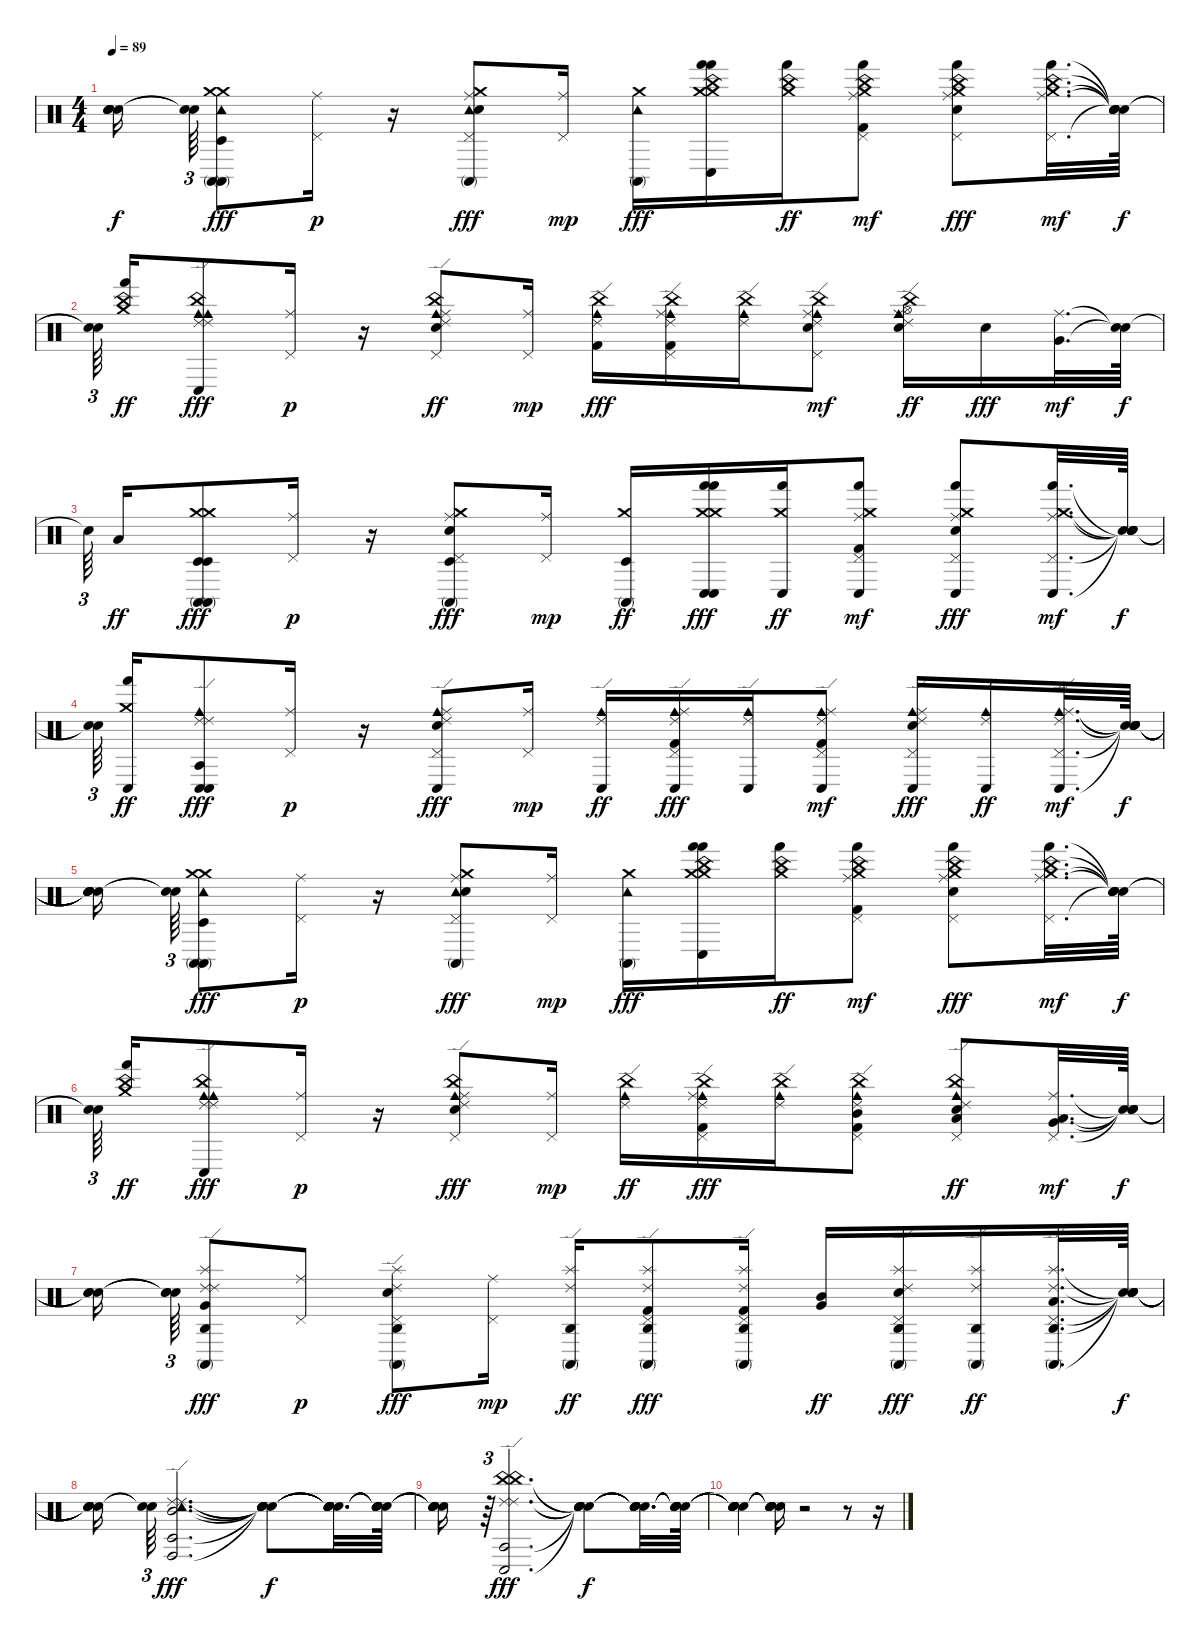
\track "" {instrument percussion}
\staff {score}
\articulation defaults
\ts (4 4)
\tempo 89
\clef neutral
\ks c
("Snare (hit)"{t} "Snare (hit)"{t} "Snare (hit)"{t} "Snare (hit)"{t} "Snare (hit)"{t}).16{dy f beam splitsecondary} ("Snare (hit)"{t} "Snare (hit)"{t}).64{tu (3 2)} ("Crash medium (hit)" "Conga high (mute)" "Timbale low (hit)" "Tambourine (hit)" "Crash medium (hit)" "Conga high (mute)").8{dy fff} ("Pedal Hi-Hat (hit)" "Ride (middle)").16{dy p} r.16 ("Tambourine (hit)" "Crash medium (hit)" "Conga high (mute)" "Snare (hit) 2" "Pedal Hi-Hat (hit)" "Ride (middle)").8{dy fff} ("Pedal Hi-Hat (hit)" "Ride (middle)").16{dy mp} ("Tambourine (hit)" "Crash medium (hit)" "Conga high (mute)").16{dy fff} ("Crash medium (hit)" "Hand (hit)" "Conga low (hit)" "China (hit)" "Crash medium (hit)" "Hand (hit)").16 ("China (hit)" "Crash medium (hit)" "Hand (hit)").16{dy ff} ("China (hit)" "Crash medium (hit)" "Hand (hit)" "Kick (hit) 2" "Pedal Hi-Hat (hit)" "Ride (middle)").8{dy mf} ("China (hit)" "Crash medium (hit)" "Hand (hit)" "Snare (hit) 2" "Pedal Hi-Hat (hit)" "Ride (middle)").8{dy fff} ("China (hit)" "Crash medium (hit)" "Hand (hit)" "Pedal Hi-Hat (hit)" "Ride (middle)").32{d dy mf} ("Snare (hit)"{t} "Snare (hit)"{t} "Snare (hit)"{t} "Snare (hit)"{t} "Snare (hit)"{t}).64{dy f} |
("Snare (hit)"{t} "Snare (hit)"{t}).64{tu (3 2) beam splitsecondary} ("China (hit)" "Crash medium (hit)" "Hand (hit)").16{dy ff} ("Cowbell medium (hit)" "Ride (edge) 2" "Conga low (hit)" "China (hit)" "Cowbell medium (hit)" "Ride (edge) 2").8{dy fff} ("Pedal Hi-Hat (hit)" "Ride (middle)").16{dy p} r.16 ("China (hit)" "Cowbell medium (hit)" "Ride (edge) 2" "Snare (hit) 2" "Pedal Hi-Hat (hit)" "Ride (middle)").8{dy ff} ("Pedal Hi-Hat (hit)" "Ride (middle)").16{dy mp} ("China (hit)" "Cowbell medium (hit)" "Ride (edge) 2" "Kick (hit) 2").16{dy fff} ("China (hit)" "Cowbell medium (hit)" "Ride (edge) 2" "Kick (hit) 2" "Pedal Hi-Hat (hit)" "Ride (middle)").16 ("China (hit)" "Cowbell medium (hit)" "Ride (edge) 2").16 ("China (hit)" "Cowbell medium (hit)" "Ride (edge) 2" "Snare (hit) 2" "Pedal Hi-Hat (hit)" "Ride (middle)").8{dy mf} ("China (hit)" "Cowbell medium (hit)" "Ride (edge) 2" "Snare (hit) 2" "Hi-Hat (open)" "Ride (middle)").16{dy ff} "Snare (hit) 2".16{dy fff} ("Very Low Tom (hit)" "Ride (middle)").32{d dy mf} ("Snare (hit)"{t} "Snare (hit)"{t}).64{dy f} |
"Snare (hit)"{t}.64{tu (3 2) beam splitsecondary} "Low Tom (hit)".16{dy ff} ("Crash medium (hit)" "Conga high (mute)" "Timbale low (hit)" "Crash medium (hit)" "Conga high (mute)" "Timbale low (hit)").8{dy fff} ("Pedal Hi-Hat (hit)" "Ride (middle)").16{dy p} r.16 ("Crash medium (hit)" "Conga high (mute)" "Timbale low (hit)" "Snare (hit) 2" "Pedal Hi-Hat (hit)" "Ride (middle)").8{dy fff} ("Pedal Hi-Hat (hit)" "Ride (middle)").16{dy mp} ("Crash medium (hit)" "Conga high (mute)" "Timbale low (hit)").16{dy ff} ("Crash medium (hit)" "Hand (hit)" "Conga low (hit)" "Crash medium (hit)" "Hand (hit)" "Conga low (hit)").16{dy fff} ("Crash medium (hit)" "Hand (hit)" "Conga low (hit)").16{dy ff} ("Crash medium (hit)" "Hand (hit)" "Conga low (hit)" "Kick (hit) 2" "Pedal Hi-Hat (hit)" "Ride (middle)").8{dy mf} ("Crash medium (hit)" "Hand (hit)" "Conga low (hit)" "Snare (hit) 2" "Pedal Hi-Hat (hit)" "Ride (middle)").8{dy fff} ("Crash medium (hit)" "Hand (hit)" "Conga low (hit)" "Pedal Hi-Hat (hit)" "Ride (middle)").32{d dy mf} ("Snare (hit)"{t} "Snare (hit)"{t} "Snare (hit)"{t} "Snare (hit)"{t} "Snare (hit)"{t}).64{dy f} |
("Snare (hit)"{t} "Snare (hit)"{t}).64{tu (3 2) beam splitsecondary} ("Crash medium (hit)" "Hand (hit)" "Conga low (hit)").16{dy ff} ("Ride (edge) 2" "Conga low (hit)" "Agogo tow (hit)" "Cowbell medium (hit)" "Ride (edge) 2" "Conga low (hit)").8{dy fff} ("Pedal Hi-Hat (hit)" "Ride (middle)").16{dy p} r.16 ("Cowbell medium (hit)" "Ride (edge) 2" "Conga low (hit)" "Snare (hit) 2" "Pedal Hi-Hat (hit)" "Ride (middle)").8{dy fff} ("Pedal Hi-Hat (hit)" "Ride (middle)").16{dy mp} ("Cowbell medium (hit)" "Ride (edge) 2" "Conga low (hit)").16{dy ff} ("Cowbell medium (hit)" "Ride (edge) 2" "Conga low (hit)" "Kick (hit) 2" "Pedal Hi-Hat (hit)" "Ride (middle)").16{dy fff} ("Cowbell medium (hit)" "Ride (edge) 2" "Conga low (hit)").16 ("Cowbell medium (hit)" "Ride (edge) 2" "Conga low (hit)" "Kick (hit) 2" "Pedal Hi-Hat (hit)" "Ride (middle)").8{dy mf} ("Cowbell medium (hit)" "Ride (edge) 2" "Conga low (hit)" "Snare (hit) 2" "Pedal Hi-Hat (hit)" "Ride (middle)").16{dy fff} ("Cowbell medium (hit)" "Ride (edge) 2" "Conga low (hit)").16{dy ff} ("Cowbell medium (hit)" "Ride (edge) 2" "Conga low (hit)" "Pedal Hi-Hat (hit)" "Ride (middle)").32{d dy mf} ("Snare (hit)"{t} "Snare (hit)"{t} "Snare (hit)"{t} "Snare (hit)"{t} "Snare (hit)"{t}).64{dy f} |
("Snare (hit)"{t} "Snare (hit)"{t} "Snare (hit)"{t} "Snare (hit)"{t} "Snare (hit)"{t}).16{beam splitsecondary} ("Snare (hit)"{t} "Snare (hit)"{t}).64{tu (3 2)} ("Crash medium (hit)" "Conga high (mute)" "Timbale low (hit)" "Tambourine (hit)" "Crash medium (hit)" "Conga high (mute)").8{dy fff} ("Pedal Hi-Hat (hit)" "Ride (middle)").16{dy p} r.16 ("Tambourine (hit)" "Crash medium (hit)" "Conga high (mute)" "Snare (hit) 2" "Pedal Hi-Hat (hit)" "Ride (middle)").8{dy fff} ("Pedal Hi-Hat (hit)" "Ride (middle)").16{dy mp} ("Tambourine (hit)" "Crash medium (hit)" "Conga high (mute)").16{dy fff} ("Crash medium (hit)" "Hand (hit)" "Conga low (hit)" "China (hit)" "Crash medium (hit)" "Hand (hit)").16 ("China (hit)" "Crash medium (hit)" "Hand (hit)").16{dy ff} ("China (hit)" "Crash medium (hit)" "Hand (hit)" "Kick (hit) 2" "Pedal Hi-Hat (hit)" "Ride (middle)").8{dy mf} ("China (hit)" "Crash medium (hit)" "Hand (hit)" "Snare (hit) 2" "Pedal Hi-Hat (hit)" "Ride (middle)").8{dy fff} ("China (hit)" "Crash medium (hit)" "Hand (hit)" "Pedal Hi-Hat (hit)" "Ride (middle)").32{d dy mf} ("Snare (hit)"{t} "Snare (hit)"{t} "Snare (hit)"{t} "Snare (hit)"{t} "Snare (hit)"{t}).64{dy f} |
("Snare (hit)"{t} "Snare (hit)"{t}).64{tu (3 2) beam splitsecondary} ("China (hit)" "Crash medium (hit)" "Hand (hit)").16{dy ff} ("Cowbell medium (hit)" "Ride (edge) 2" "Conga low (hit)" "China (hit)" "Cowbell medium (hit)" "Ride (edge) 2").8{dy fff} ("Pedal Hi-Hat (hit)" "Ride (middle)").16{dy p} r.16 ("China (hit)" "Cowbell medium (hit)" "Ride (edge) 2" "Snare (hit) 2" "Pedal Hi-Hat (hit)" "Ride (middle)").8{dy fff} ("Pedal Hi-Hat (hit)" "Ride (middle)").16{dy mp} ("China (hit)" "Cowbell medium (hit)" "Ride (edge) 2").16{dy ff} ("China (hit)" "Cowbell medium (hit)" "Ride (edge) 2" "Kick (hit) 2" "Pedal Hi-Hat (hit)" "Ride (middle)").16{dy fff} ("China (hit)" "Cowbell medium (hit)" "Ride (edge) 2").16 ("China (hit)" "Cowbell medium (hit)" "Ride (edge) 2" "Kick (hit) 2" "Pedal Hi-Hat (hit)" "Mid Tom (hit)").8 ("China (hit)" "Cowbell medium (hit)" "Ride (edge) 2" "Snare (hit) 2" "Pedal Hi-Hat (hit)" "Low Tom (hit)").8{dy ff} ("Very Low Tom (hit)" "Pedal Hi-Hat (hit)" "Low Tom (hit)" "Ride (middle)").32{d dy mf} ("Snare (hit)"{t} "Snare (hit)"{t} "Snare (hit)"{t} "Snare (hit)"{t}).64{dy f} |
("Snare (hit)"{t} "Snare (hit)"{t} "Snare (hit)"{t}).16{beam splitsecondary} ("Snare (hit)"{t} "Snare (hit)"{t} "Snare (hit)"{t}).64{tu (3 2)} ("Very Low Tom (hit)" "Ride (edge) 2" "Conga high (mute)" "Agogo high (hit)" "Splash (hit)" "Ride (edge) 2").8{dy fff} ("Pedal Hi-Hat (hit)" "Ride (middle)").8{dy p} ("Splash (hit)" "Ride (edge) 2" "Conga high (mute)" "Agogo high (hit)" "Snare (hit) 2" "Pedal Hi-Hat (hit)").8{dy fff} ("Pedal Hi-Hat (hit)" "Ride (middle)").16{dy mp} ("Splash (hit)" "Ride (edge) 2" "Conga high (mute)" "Agogo high (hit)").16{dy ff} ("Splash (hit)" "Ride (edge) 2" "Conga high (mute)" "Agogo high (hit)" "Kick (hit) 2" "Pedal Hi-Hat (hit)").8{dy fff} ("Splash (hit)" "Ride (edge) 2" "Conga high (mute)" "Agogo high (hit)" "Kick (hit) 2" "Pedal Hi-Hat (hit)").16 ("Very Low Tom (hit)" "Mid Tom (hit)").16{dy ff} ("Splash (hit)" "Ride (edge) 2" "Conga high (mute)" "Agogo high (hit)" "Snare (hit) 2" "Pedal Hi-Hat (hit)").16{dy fff} ("Splash (hit)" "Ride (edge) 2" "Conga high (mute)" "Agogo high (hit)").16{dy ff} ("Splash (hit)" "Ride (edge) 2" "Conga high (mute)" "Agogo high (hit)" "Pedal Hi-Hat (hit)" "Low Tom (hit)").32{d} ("Snare (hit)"{t} "Snare (hit)"{t} "Snare (hit)"{t} "Snare (hit)"{t} "Snare (hit)"{t}).64{dy f} |
("Snare (hit)"{t} "Snare (hit)"{t} "Snare (hit)"{t} "Snare (hit)"{t} "Snare (hit)"{t}).16 ("Snare (hit)"{t} "Snare (hit)"{t}).64{tu (3 2)} ("Mid Tom (hit)" "Ride (edge) 2" "Conga high (hit)" "Timbale low (hit)" "Tambourine (hit)" "Ride (edge) 2").2{d dy fff} ("Snare (hit)"{t} "Snare (hit)"{t} "Snare (hit)"{t} "Snare (hit)"{t} "Snare (hit)"{t} "Snare (hit)"{t}).8{dy f} ("Snare (hit)"{t} "Snare (hit)"{t} "Snare (hit)"{t} "Snare (hit)"{t} "Snare (hit)"{t} "Snare (hit)"{t}).32{d} ("Snare (hit)"{t} "Snare (hit)"{t} "Snare (hit)"{t} "Snare (hit)"{t} "Snare (hit)"{t} "Snare (hit)"{t}).64 |
("Snare (hit)"{t} "Snare (hit)"{t} "Snare (hit)"{t} "Snare (hit)"{t} "Snare (hit)"{t} "Snare (hit)"{t}).16 r.64{tu (3 2)} ("China (hit)" "Ride (edge) 2" "Conga low (hit)" "Agogo tow (hit)" "China (hit)" "Ride (edge) 2").2{d dy fff} ("Snare (hit)"{t} "Snare (hit)"{t} "Snare (hit)"{t} "Snare (hit)"{t} "Snare (hit)"{t} "Snare (hit)"{t}).8{dy f} ("Snare (hit)"{t} "Snare (hit)"{t} "Snare (hit)"{t} "Snare (hit)"{t} "Snare (hit)"{t} "Snare (hit)"{t}).32{d} ("Snare (hit)"{t} "Snare (hit)"{t} "Snare (hit)"{t} "Snare (hit)"{t} "Snare (hit)"{t} "Snare (hit)"{t}).64 |
("Snare (hit)"{t} "Snare (hit)"{t} "Snare (hit)"{t} "Snare (hit)"{t} "Snare (hit)"{t} "Snare (hit)"{t}).4 ("Snare (hit)"{t} "Snare (hit)"{t} "Snare (hit)"{t} "Snare (hit)"{t} "Snare (hit)"{t} "Snare (hit)"{t}).16 r.2 r.8 r.16
